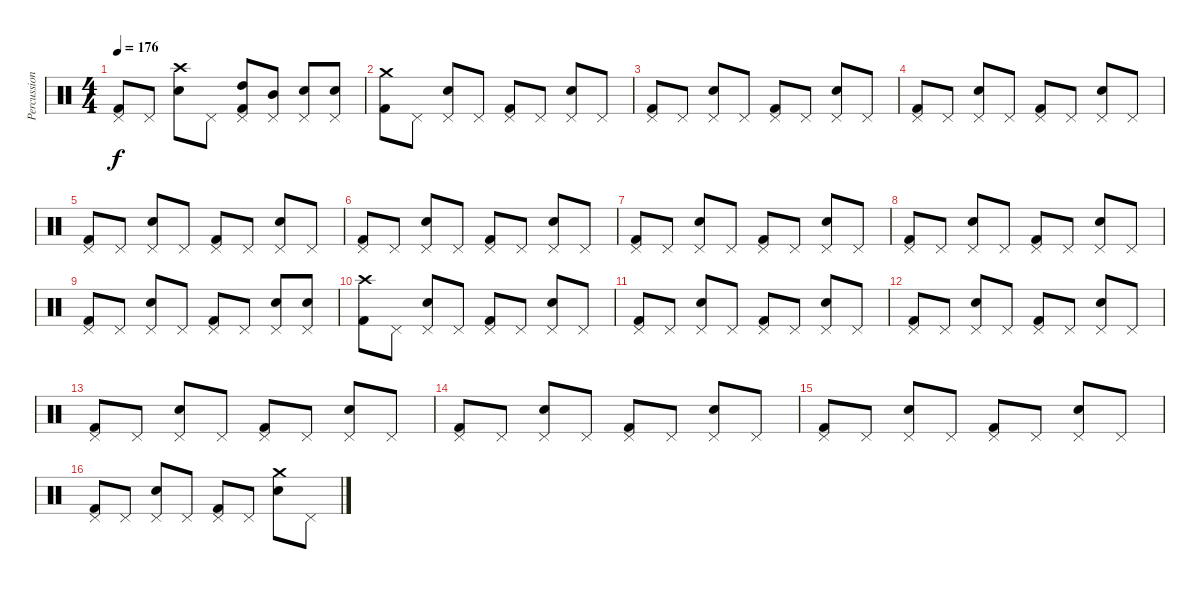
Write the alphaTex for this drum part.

\track ("Percussions" "Percussion") {instrument percussion}
\staff {score}
\articulation defaults
\ts (4 4)
\tempo 176
\clef neutral
\ks c
("Pedal Hi-Hat (hit)" "Kick (hit) 2").8{dy f} "Pedal Hi-Hat (hit)".8 ("Crash high (hit)" "Electric Snare (hit)").8 "Pedal Hi-Hat (hit)".8 ("Pedal Hi-Hat (hit)" "High Tom (hit)" "Kick (hit) 2").8 ("Pedal Hi-Hat (hit)" "Mid Tom (hit)").8 ("Pedal Hi-Hat (hit)" "Electric Snare (hit)").8 ("Pedal Hi-Hat (hit)" "Electric Snare (hit)").8 |
("Crash medium (hit)" "Kick (hit) 2").8 "Pedal Hi-Hat (hit)".8 ("Pedal Hi-Hat (hit)" "Electric Snare (hit)").8 "Pedal Hi-Hat (hit)".8 ("Pedal Hi-Hat (hit)" "Kick (hit) 2").8 "Pedal Hi-Hat (hit)".8 ("Pedal Hi-Hat (hit)" "Electric Snare (hit)").8 "Pedal Hi-Hat (hit)".8 |
("Pedal Hi-Hat (hit)" "Kick (hit) 2").8 "Pedal Hi-Hat (hit)".8 ("Pedal Hi-Hat (hit)" "Electric Snare (hit)").8 "Pedal Hi-Hat (hit)".8 ("Pedal Hi-Hat (hit)" "Kick (hit) 2").8 "Pedal Hi-Hat (hit)".8 ("Pedal Hi-Hat (hit)" "Electric Snare (hit)").8 "Pedal Hi-Hat (hit)".8 |
("Pedal Hi-Hat (hit)" "Kick (hit) 2").8 "Pedal Hi-Hat (hit)".8 ("Pedal Hi-Hat (hit)" "Electric Snare (hit)").8 "Pedal Hi-Hat (hit)".8 ("Pedal Hi-Hat (hit)" "Kick (hit) 2").8 "Pedal Hi-Hat (hit)".8 ("Pedal Hi-Hat (hit)" "Electric Snare (hit)").8 "Pedal Hi-Hat (hit)".8 |
("Pedal Hi-Hat (hit)" "Kick (hit) 2").8 "Pedal Hi-Hat (hit)".8 ("Pedal Hi-Hat (hit)" "Electric Snare (hit)").8 "Pedal Hi-Hat (hit)".8 ("Pedal Hi-Hat (hit)" "Kick (hit) 2").8 "Pedal Hi-Hat (hit)".8 ("Pedal Hi-Hat (hit)" "Electric Snare (hit)").8 "Pedal Hi-Hat (hit)".8 |
("Pedal Hi-Hat (hit)" "Kick (hit) 2").8 "Pedal Hi-Hat (hit)".8 ("Pedal Hi-Hat (hit)" "Electric Snare (hit)").8 "Pedal Hi-Hat (hit)".8 ("Pedal Hi-Hat (hit)" "Kick (hit) 2").8 "Pedal Hi-Hat (hit)".8 ("Pedal Hi-Hat (hit)" "Electric Snare (hit)").8 "Pedal Hi-Hat (hit)".8 |
("Pedal Hi-Hat (hit)" "Kick (hit) 2").8 "Pedal Hi-Hat (hit)".8 ("Pedal Hi-Hat (hit)" "Electric Snare (hit)").8 "Pedal Hi-Hat (hit)".8 ("Pedal Hi-Hat (hit)" "Kick (hit) 2").8 "Pedal Hi-Hat (hit)".8 ("Pedal Hi-Hat (hit)" "Electric Snare (hit)").8 "Pedal Hi-Hat (hit)".8 |
("Pedal Hi-Hat (hit)" "Kick (hit) 2").8 "Pedal Hi-Hat (hit)".8 ("Pedal Hi-Hat (hit)" "Electric Snare (hit)").8 "Pedal Hi-Hat (hit)".8 ("Pedal Hi-Hat (hit)" "Kick (hit) 2").8 "Pedal Hi-Hat (hit)".8 ("Pedal Hi-Hat (hit)" "Electric Snare (hit)").8 "Pedal Hi-Hat (hit)".8 |
("Pedal Hi-Hat (hit)" "Kick (hit) 2").8 "Pedal Hi-Hat (hit)".8 ("Pedal Hi-Hat (hit)" "Electric Snare (hit)").8 "Pedal Hi-Hat (hit)".8 ("Pedal Hi-Hat (hit)" "Kick (hit) 2").8 "Pedal Hi-Hat (hit)".8 ("Pedal Hi-Hat (hit)" "Electric Snare (hit)").8 ("Pedal Hi-Hat (hit)" "Electric Snare (hit)").8 |
("Crash high (hit)" "Kick (hit) 2").8 "Pedal Hi-Hat (hit)".8 ("Pedal Hi-Hat (hit)" "Electric Snare (hit)").8 "Pedal Hi-Hat (hit)".8 ("Pedal Hi-Hat (hit)" "Kick (hit) 2").8 "Pedal Hi-Hat (hit)".8 ("Pedal Hi-Hat (hit)" "Electric Snare (hit)").8 "Pedal Hi-Hat (hit)".8 |
("Pedal Hi-Hat (hit)" "Kick (hit) 2").8 "Pedal Hi-Hat (hit)".8 ("Pedal Hi-Hat (hit)" "Electric Snare (hit)").8 "Pedal Hi-Hat (hit)".8 ("Pedal Hi-Hat (hit)" "Kick (hit) 2").8 "Pedal Hi-Hat (hit)".8 ("Pedal Hi-Hat (hit)" "Electric Snare (hit)").8 "Pedal Hi-Hat (hit)".8 |
("Pedal Hi-Hat (hit)" "Kick (hit) 2").8 "Pedal Hi-Hat (hit)".8 ("Pedal Hi-Hat (hit)" "Electric Snare (hit)").8 "Pedal Hi-Hat (hit)".8 ("Pedal Hi-Hat (hit)" "Kick (hit) 2").8 "Pedal Hi-Hat (hit)".8 ("Pedal Hi-Hat (hit)" "Electric Snare (hit)").8 "Pedal Hi-Hat (hit)".8 |
("Pedal Hi-Hat (hit)" "Kick (hit) 2").8 "Pedal Hi-Hat (hit)".8 ("Pedal Hi-Hat (hit)" "Electric Snare (hit)").8 "Pedal Hi-Hat (hit)".8 ("Pedal Hi-Hat (hit)" "Kick (hit) 2").8 "Pedal Hi-Hat (hit)".8 ("Pedal Hi-Hat (hit)" "Electric Snare (hit)").8 "Pedal Hi-Hat (hit)".8 |
("Pedal Hi-Hat (hit)" "Kick (hit) 2").8 "Pedal Hi-Hat (hit)".8 ("Pedal Hi-Hat (hit)" "Electric Snare (hit)").8 "Pedal Hi-Hat (hit)".8 ("Pedal Hi-Hat (hit)" "Kick (hit) 2").8 "Pedal Hi-Hat (hit)".8 ("Pedal Hi-Hat (hit)" "Electric Snare (hit)").8 "Pedal Hi-Hat (hit)".8 |
("Pedal Hi-Hat (hit)" "Kick (hit) 2").8 "Pedal Hi-Hat (hit)".8 ("Pedal Hi-Hat (hit)" "Electric Snare (hit)").8 "Pedal Hi-Hat (hit)".8 ("Pedal Hi-Hat (hit)" "Kick (hit) 2").8 "Pedal Hi-Hat (hit)".8 ("Pedal Hi-Hat (hit)" "Electric Snare (hit)").8 "Pedal Hi-Hat (hit)".8 |
("Pedal Hi-Hat (hit)" "Kick (hit) 2").8 "Pedal Hi-Hat (hit)".8 ("Pedal Hi-Hat (hit)" "Electric Snare (hit)").8 "Pedal Hi-Hat (hit)".8 ("Pedal Hi-Hat (hit)" "Kick (hit) 2").8 "Pedal Hi-Hat (hit)".8 ("Crash medium (hit)" "Electric Snare (hit)").8 "Pedal Hi-Hat (hit)".8
